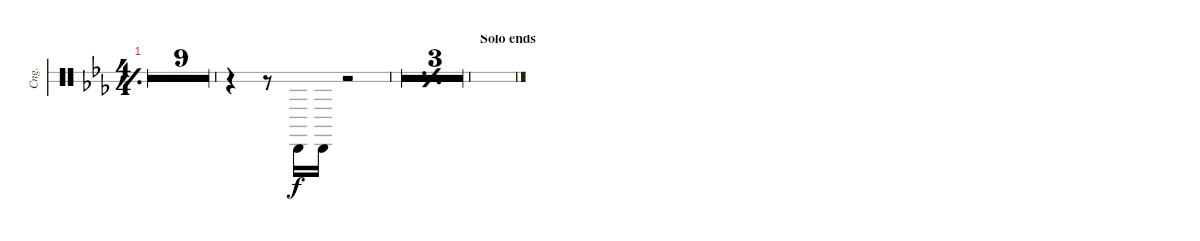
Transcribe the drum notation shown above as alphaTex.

\bracketExtendMode groupsimilarinstruments
\otherSystemsTrackNameOrientation horizontal
\defaultBarNumberDisplay FirstOfSystem
\track ("Congas" "Cng.") {multiBarRest instrument percussion}
\staff {score 2}
\articulation defaults
\ts (4 4)
\tempo 81
\clef neutral
\simile simple
\ks eb
|
|
|
|
|
|
|
|
r.1{beam Down} |
r.4{beam Down} r.8{beam Down} "Conga low (hit)"{acc forcenatural}.16{beam Up} "Conga low (hit)"{acc forcenatural}.16{beam Up} r.2{beam Up} |
\simile simple
|
|
|
\section ("" "Solo ends")
